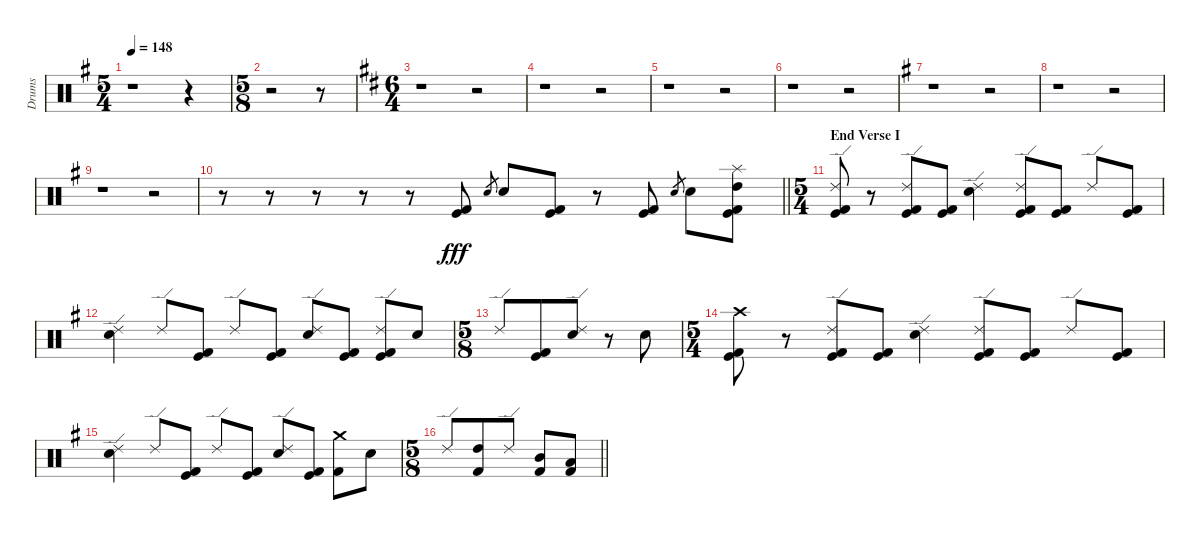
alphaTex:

\track ("Drums" "Drums") {instrument percussion}
\staff {score}
\articulation defaults
\ts (5 4)
\tempo 148
\clef neutral
\ks g
r.1{dy fff} r.4 |
\ts (5 8)
r.2 r.8 |
\ts (6 4)
\ks d
r.1 r.2 |
r.1 r.2 |
r.1 r.2 |
r.1 r.2 |
\ks g
r.1 r.2 |
r.1 r.2 |
r.1 r.2 |
\barLineRight lightlight
r.8 r.8 r.8 r.8 r.8 ("Kick (hit)" "Kick (hit) 2").8 "Electric Snare (hit)".8{gr} "Electric Snare (hit)".8 ("Kick (hit)" "Kick (hit) 2").8 r.8 ("Kick (hit)" "Kick (hit) 2").8 "Electric Snare (hit)".8{gr} "Electric Snare (hit)".8 ("High Tom (hit)" "Splash (hit)" "Kick (hit)" "Kick (hit) 2").8 |
\ts (5 4)
\section ("" "End Verse I")
("Ride (edge) 2" "Kick (hit)" "Kick (hit) 2").8 r.8 ("Ride (edge) 2" "Kick (hit)" "Kick (hit) 2").8 ("Kick (hit)" "Kick (hit) 2").8 ("Ride (edge) 2" "Electric Snare (hit)").4 ("Ride (edge) 2" "Kick (hit)" "Kick (hit) 2").8 ("Kick (hit)" "Kick (hit) 2").8 "Ride (edge) 2".8 ("Kick (hit)" "Kick (hit) 2").8 |
("Ride (edge) 2" "Electric Snare (hit)").4 "Ride (edge) 2".8 ("Kick (hit)" "Kick (hit) 2").8 "Ride (edge) 2".8 ("Kick (hit)" "Kick (hit) 2").8 ("Ride (edge) 2" "Electric Snare (hit)").8 ("Kick (hit)" "Kick (hit) 2").8 ("Ride (edge) 2" "Kick (hit)" "Kick (hit) 2").8 "Electric Snare (hit)".8 |
\ts (5 8)
"Ride (edge) 2".8 ("Kick (hit)" "Kick (hit) 2").8 ("Ride (edge) 2" "Electric Snare (hit)").8 r.8 "Electric Snare (hit)".8 |
\ts (5 4)
("Crash high (hit)" "Kick (hit)" "Kick (hit) 2").8 r.8 ("Ride (edge) 2" "Kick (hit)" "Kick (hit) 2").8 ("Kick (hit)" "Kick (hit) 2").8 ("Ride (edge) 2" "Electric Snare (hit)").4 ("Ride (edge) 2" "Kick (hit)" "Kick (hit) 2").8 ("Kick (hit)" "Kick (hit) 2").8 "Ride (edge) 2".8 ("Kick (hit)" "Kick (hit) 2").8 |
("Ride (edge) 2" "Electric Snare (hit)").4 "Ride (edge) 2".8 ("Kick (hit)" "Kick (hit) 2").8 "Ride (edge) 2".8 ("Kick (hit)" "Kick (hit) 2").8 ("Ride (edge) 2" "Electric Snare (hit)").8 ("Kick (hit)" "Kick (hit) 2").8 ("Crash medium (hit)" "Kick (hit) 2").8 "Electric Snare (hit)".8 |
\ts (5 8)
\barLineRight lightlight "Ride (edge) 2".8
("High Tom (hit)" "Kick (hit) 2").8 "Ride (edge) 2".8 ("Mid Tom (hit)" "Kick (hit) 2").8 ("Low Tom (hit)" "Kick (hit) 2").8
